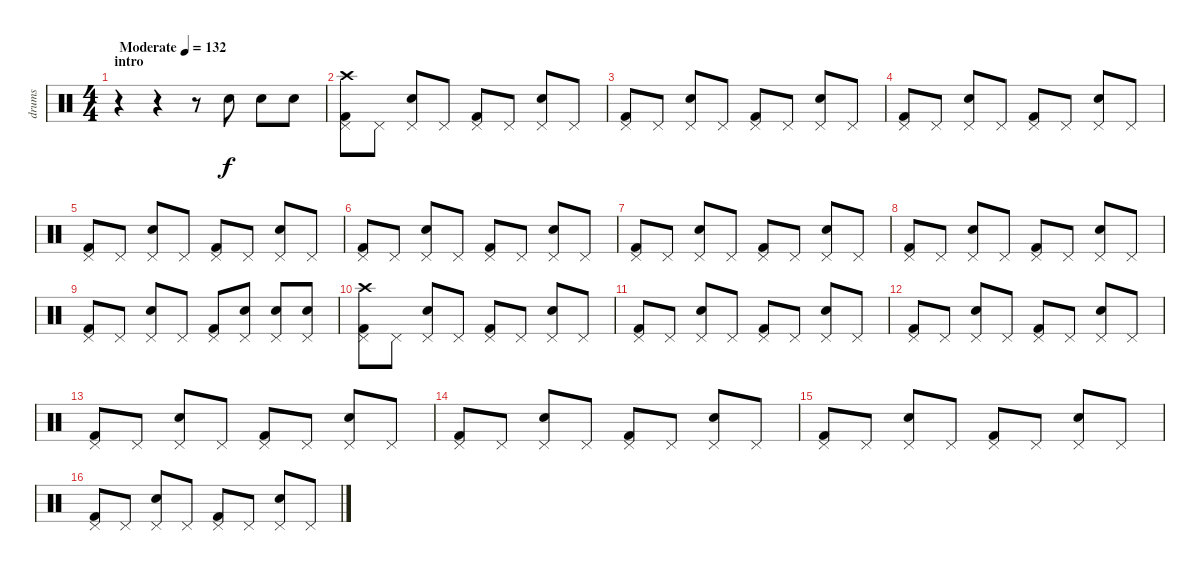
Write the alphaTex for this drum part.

\track ("drums" "drums") {instrument percussion}
\staff {score}
\articulation defaults
\ts (4 4)
\section ("" "intro")
\tempo (132 "Moderate")
\clef neutral
\ks c
r.4{dy f} r.4 r.8 "Electric Snare (hit)".8 "Electric Snare (hit)".8 "Electric Snare (hit)".8 |
("Kick (hit) 2" "Pedal Hi-Hat (hit)" "Crash high (hit)").8 "Pedal Hi-Hat (hit)".8 ("Electric Snare (hit)" "Pedal Hi-Hat (hit)").8 "Pedal Hi-Hat (hit)".8 ("Kick (hit) 2" "Pedal Hi-Hat (hit)").8 "Pedal Hi-Hat (hit)".8 ("Electric Snare (hit)" "Pedal Hi-Hat (hit)").8 "Pedal Hi-Hat (hit)".8 |
("Kick (hit) 2" "Pedal Hi-Hat (hit)").8 "Pedal Hi-Hat (hit)".8 ("Electric Snare (hit)" "Pedal Hi-Hat (hit)").8 "Pedal Hi-Hat (hit)".8 ("Kick (hit) 2" "Pedal Hi-Hat (hit)").8 "Pedal Hi-Hat (hit)".8 ("Electric Snare (hit)" "Pedal Hi-Hat (hit)").8 "Pedal Hi-Hat (hit)".8 |
("Kick (hit) 2" "Pedal Hi-Hat (hit)").8 "Pedal Hi-Hat (hit)".8 ("Electric Snare (hit)" "Pedal Hi-Hat (hit)").8 "Pedal Hi-Hat (hit)".8 ("Kick (hit) 2" "Pedal Hi-Hat (hit)").8 "Pedal Hi-Hat (hit)".8 ("Electric Snare (hit)" "Pedal Hi-Hat (hit)").8 "Pedal Hi-Hat (hit)".8 |
("Kick (hit) 2" "Pedal Hi-Hat (hit)").8 "Pedal Hi-Hat (hit)".8 ("Electric Snare (hit)" "Pedal Hi-Hat (hit)").8 "Pedal Hi-Hat (hit)".8 ("Kick (hit) 2" "Pedal Hi-Hat (hit)").8 "Pedal Hi-Hat (hit)".8 ("Electric Snare (hit)" "Pedal Hi-Hat (hit)").8 "Pedal Hi-Hat (hit)".8 |
("Kick (hit) 2" "Pedal Hi-Hat (hit)").8 "Pedal Hi-Hat (hit)".8 ("Electric Snare (hit)" "Pedal Hi-Hat (hit)").8 "Pedal Hi-Hat (hit)".8 ("Kick (hit) 2" "Pedal Hi-Hat (hit)").8 "Pedal Hi-Hat (hit)".8 ("Electric Snare (hit)" "Pedal Hi-Hat (hit)").8 "Pedal Hi-Hat (hit)".8 |
("Kick (hit) 2" "Pedal Hi-Hat (hit)").8 "Pedal Hi-Hat (hit)".8 ("Electric Snare (hit)" "Pedal Hi-Hat (hit)").8 "Pedal Hi-Hat (hit)".8 ("Kick (hit) 2" "Pedal Hi-Hat (hit)").8 "Pedal Hi-Hat (hit)".8 ("Electric Snare (hit)" "Pedal Hi-Hat (hit)").8 "Pedal Hi-Hat (hit)".8 |
("Kick (hit) 2" "Pedal Hi-Hat (hit)").8 "Pedal Hi-Hat (hit)".8 ("Electric Snare (hit)" "Pedal Hi-Hat (hit)").8 "Pedal Hi-Hat (hit)".8 ("Kick (hit) 2" "Pedal Hi-Hat (hit)").8 "Pedal Hi-Hat (hit)".8 ("Electric Snare (hit)" "Pedal Hi-Hat (hit)").8 "Pedal Hi-Hat (hit)".8 |
("Kick (hit) 2" "Pedal Hi-Hat (hit)").8 "Pedal Hi-Hat (hit)".8 ("Electric Snare (hit)" "Pedal Hi-Hat (hit)").8 "Pedal Hi-Hat (hit)".8 ("Kick (hit) 2" "Pedal Hi-Hat (hit)").8 ("Electric Snare (hit)" "Pedal Hi-Hat (hit)").8 ("Electric Snare (hit)" "Pedal Hi-Hat (hit)").8 ("Electric Snare (hit)" "Pedal Hi-Hat (hit)").8 |
("Kick (hit) 2" "Pedal Hi-Hat (hit)" "Crash high (hit)").8 "Pedal Hi-Hat (hit)".8 ("Electric Snare (hit)" "Pedal Hi-Hat (hit)").8 "Pedal Hi-Hat (hit)".8 ("Kick (hit) 2" "Pedal Hi-Hat (hit)").8 "Pedal Hi-Hat (hit)".8 ("Electric Snare (hit)" "Pedal Hi-Hat (hit)").8 "Pedal Hi-Hat (hit)".8 |
("Kick (hit) 2" "Pedal Hi-Hat (hit)").8 "Pedal Hi-Hat (hit)".8 ("Electric Snare (hit)" "Pedal Hi-Hat (hit)").8 "Pedal Hi-Hat (hit)".8 ("Kick (hit) 2" "Pedal Hi-Hat (hit)").8 "Pedal Hi-Hat (hit)".8 ("Electric Snare (hit)" "Pedal Hi-Hat (hit)").8 "Pedal Hi-Hat (hit)".8 |
("Kick (hit) 2" "Pedal Hi-Hat (hit)").8 "Pedal Hi-Hat (hit)".8 ("Electric Snare (hit)" "Pedal Hi-Hat (hit)").8 "Pedal Hi-Hat (hit)".8 ("Kick (hit) 2" "Pedal Hi-Hat (hit)").8 "Pedal Hi-Hat (hit)".8 ("Electric Snare (hit)" "Pedal Hi-Hat (hit)").8 "Pedal Hi-Hat (hit)".8 |
("Kick (hit) 2" "Pedal Hi-Hat (hit)").8 "Pedal Hi-Hat (hit)".8 ("Electric Snare (hit)" "Pedal Hi-Hat (hit)").8 "Pedal Hi-Hat (hit)".8 ("Kick (hit) 2" "Pedal Hi-Hat (hit)").8 "Pedal Hi-Hat (hit)".8 ("Electric Snare (hit)" "Pedal Hi-Hat (hit)").8 "Pedal Hi-Hat (hit)".8 |
("Kick (hit) 2" "Pedal Hi-Hat (hit)").8 "Pedal Hi-Hat (hit)".8 ("Electric Snare (hit)" "Pedal Hi-Hat (hit)").8 "Pedal Hi-Hat (hit)".8 ("Kick (hit) 2" "Pedal Hi-Hat (hit)").8 "Pedal Hi-Hat (hit)".8 ("Electric Snare (hit)" "Pedal Hi-Hat (hit)").8 "Pedal Hi-Hat (hit)".8 |
("Kick (hit) 2" "Pedal Hi-Hat (hit)").8 "Pedal Hi-Hat (hit)".8 ("Electric Snare (hit)" "Pedal Hi-Hat (hit)").8 "Pedal Hi-Hat (hit)".8 ("Kick (hit) 2" "Pedal Hi-Hat (hit)").8 "Pedal Hi-Hat (hit)".8 ("Electric Snare (hit)" "Pedal Hi-Hat (hit)").8 "Pedal Hi-Hat (hit)".8 |
("Kick (hit) 2" "Pedal Hi-Hat (hit)").8 "Pedal Hi-Hat (hit)".8 ("Electric Snare (hit)" "Pedal Hi-Hat (hit)").8 "Pedal Hi-Hat (hit)".8 ("Kick (hit) 2" "Pedal Hi-Hat (hit)").8 "Pedal Hi-Hat (hit)".8 ("Electric Snare (hit)" "Pedal Hi-Hat (hit)").8 "Pedal Hi-Hat (hit)".8
